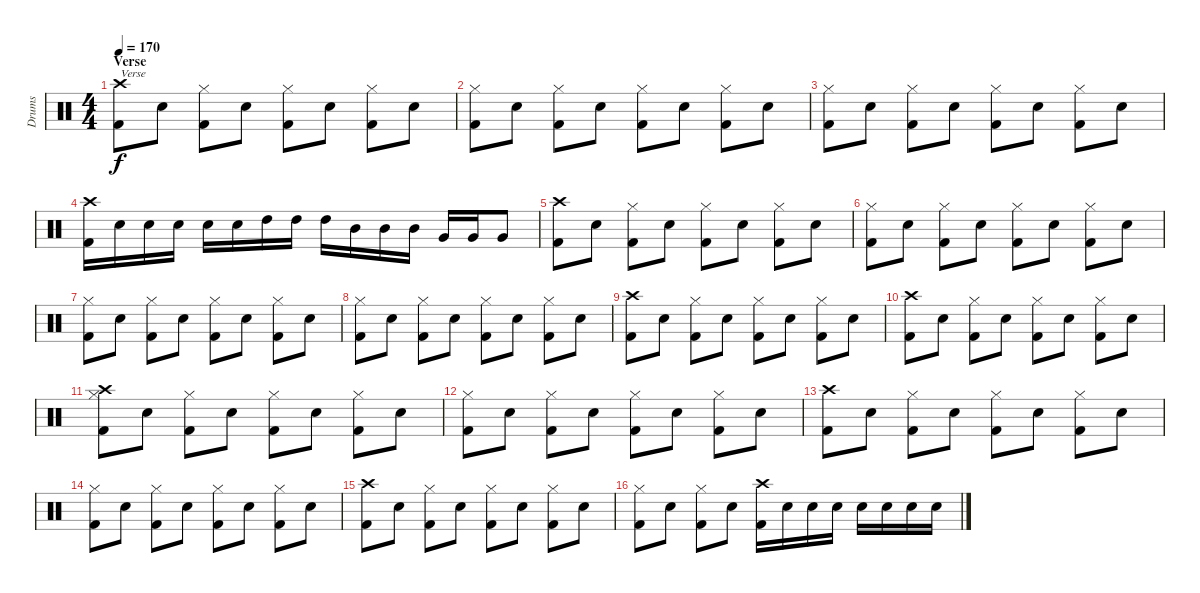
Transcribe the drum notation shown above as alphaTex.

\track ("Drums" "Drums") {instrument percussion}
\staff {score}
\articulation defaults
\ts (4 4)
\section ("" "Verse")
\tempo 170
\clef neutral
\ks c
("Crash high (hit)" "Kick (hit) 2").8{txt "Verse" dy f} "Electric Snare (hit)".8 ("Hi-Hat (closed)" "Kick (hit) 2").8 "Electric Snare (hit)".8 ("Hi-Hat (closed)" "Kick (hit) 2").8 "Electric Snare (hit)".8 ("Hi-Hat (closed)" "Kick (hit) 2").8 "Electric Snare (hit)".8 |
("Hi-Hat (closed)" "Kick (hit) 2").8 "Electric Snare (hit)".8 ("Hi-Hat (closed)" "Kick (hit) 2").8 "Electric Snare (hit)".8 ("Hi-Hat (closed)" "Kick (hit) 2").8 "Electric Snare (hit)".8 ("Hi-Hat (closed)" "Kick (hit) 2").8 "Electric Snare (hit)".8 |
("Hi-Hat (closed)" "Kick (hit) 2").8 "Electric Snare (hit)".8 ("Hi-Hat (closed)" "Kick (hit) 2").8 "Electric Snare (hit)".8 ("Hi-Hat (closed)" "Kick (hit) 2").8 "Electric Snare (hit)".8 ("Hi-Hat (closed)" "Kick (hit) 2").8 "Electric Snare (hit)".8 |
("Crash high (hit)" "Kick (hit) 2").16 "Electric Snare (hit)".16 "Electric Snare (hit)".16 "Electric Snare (hit)".16 "Electric Snare (hit)".16 "Electric Snare (hit)".16 "High Tom (hit)".16 "High Tom (hit)".16 "High Tom (hit)".16 "Mid Tom (hit)".16 "Mid Tom (hit)".16 "Mid Tom (hit)".16 "Very Low Tom (hit)".16 "Very Low Tom (hit)".16 "Very Low Tom (hit)".8 |
("Crash high (hit)" "Kick (hit) 2").8 "Electric Snare (hit)".8 ("Hi-Hat (closed)" "Kick (hit) 2").8 "Electric Snare (hit)".8 ("Hi-Hat (closed)" "Kick (hit) 2").8 "Electric Snare (hit)".8 ("Hi-Hat (closed)" "Kick (hit) 2").8 "Electric Snare (hit)".8 |
("Hi-Hat (closed)" "Kick (hit) 2").8 "Electric Snare (hit)".8 ("Hi-Hat (closed)" "Kick (hit) 2").8 "Electric Snare (hit)".8 ("Hi-Hat (closed)" "Kick (hit) 2").8 "Electric Snare (hit)".8 ("Hi-Hat (closed)" "Kick (hit) 2").8 "Electric Snare (hit)".8 |
("Hi-Hat (closed)" "Kick (hit) 2").8 "Electric Snare (hit)".8 ("Hi-Hat (closed)" "Kick (hit) 2").8 "Electric Snare (hit)".8 ("Hi-Hat (closed)" "Kick (hit) 2").8 "Electric Snare (hit)".8 ("Hi-Hat (closed)" "Kick (hit) 2").8 "Electric Snare (hit)".8 |
("Hi-Hat (closed)" "Kick (hit) 2").8 "Electric Snare (hit)".8 ("Hi-Hat (closed)" "Kick (hit) 2").8 "Electric Snare (hit)".8 ("Hi-Hat (closed)" "Kick (hit) 2").8 "Electric Snare (hit)".8 ("Hi-Hat (closed)" "Kick (hit) 2").8 "Electric Snare (hit)".8 |
("Crash high (hit)" "Kick (hit) 2").8 "Electric Snare (hit)".8 ("Hi-Hat (closed)" "Kick (hit) 2").8 "Electric Snare (hit)".8 ("Hi-Hat (closed)" "Kick (hit) 2").8 "Electric Snare (hit)".8 ("Hi-Hat (closed)" "Kick (hit) 2").8 "Electric Snare (hit)".8 |
("Crash high (hit)" "Kick (hit) 2").8 "Electric Snare (hit)".8 ("Hi-Hat (closed)" "Kick (hit) 2").8 "Electric Snare (hit)".8 ("Hi-Hat (closed)" "Kick (hit) 2").8 "Electric Snare (hit)".8 ("Hi-Hat (closed)" "Kick (hit) 2").8 "Electric Snare (hit)".8 |
("Hi-Hat (closed)" "Crash high (hit)" "Kick (hit) 2").8 "Electric Snare (hit)".8 ("Hi-Hat (closed)" "Kick (hit) 2").8 "Electric Snare (hit)".8 ("Hi-Hat (closed)" "Kick (hit) 2").8 "Electric Snare (hit)".8 ("Hi-Hat (closed)" "Kick (hit) 2").8 "Electric Snare (hit)".8 |
("Hi-Hat (closed)" "Kick (hit) 2").8 "Electric Snare (hit)".8 ("Hi-Hat (closed)" "Kick (hit) 2").8 "Electric Snare (hit)".8 ("Hi-Hat (closed)" "Kick (hit) 2").8 "Electric Snare (hit)".8 ("Hi-Hat (closed)" "Kick (hit) 2").8 "Electric Snare (hit)".8 |
("Crash high (hit)" "Kick (hit) 2").8 "Electric Snare (hit)".8 ("Hi-Hat (closed)" "Kick (hit) 2").8 "Electric Snare (hit)".8 ("Hi-Hat (closed)" "Kick (hit) 2").8 "Electric Snare (hit)".8 ("Hi-Hat (closed)" "Kick (hit) 2").8 "Electric Snare (hit)".8 |
("Hi-Hat (closed)" "Kick (hit) 2").8 "Electric Snare (hit)".8 ("Hi-Hat (closed)" "Kick (hit) 2").8 "Electric Snare (hit)".8 ("Hi-Hat (closed)" "Kick (hit) 2").8 "Electric Snare (hit)".8 ("Hi-Hat (closed)" "Kick (hit) 2").8 "Electric Snare (hit)".8 |
("Crash high (hit)" "Kick (hit) 2").8 "Electric Snare (hit)".8 ("Hi-Hat (closed)" "Kick (hit) 2").8 "Electric Snare (hit)".8 ("Hi-Hat (closed)" "Kick (hit) 2").8 "Electric Snare (hit)".8 ("Hi-Hat (closed)" "Kick (hit) 2").8 "Electric Snare (hit)".8 |
("Hi-Hat (closed)" "Kick (hit) 2").8 "Electric Snare (hit)".8 ("Hi-Hat (closed)" "Kick (hit) 2").8 "Electric Snare (hit)".8 ("Crash high (hit)" "Kick (hit) 2").16 "Electric Snare (hit)".16 "Electric Snare (hit)".16 "Electric Snare (hit)".16 "Electric Snare (hit)".16 "Electric Snare (hit)".16 "Electric Snare (hit)".16 "Electric Snare (hit)".16
